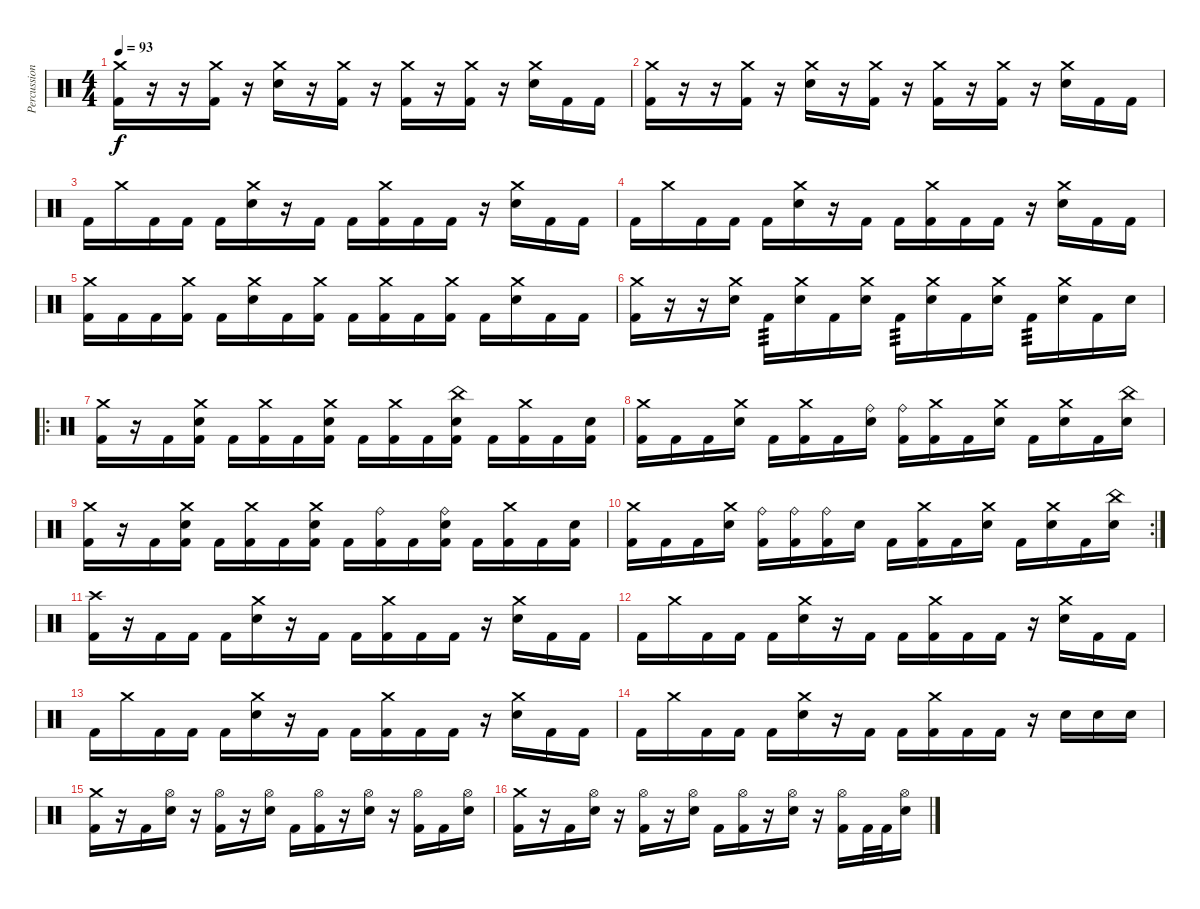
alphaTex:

\track ("Percussion" "Percussion") {instrument percussion}
\staff {score}
\articulation defaults
\ts (4 4)
\tempo 93
\clef neutral
\ks c
("Crash medium (hit)" "Kick (hit) 2").16{dy f} r.16 r.16 ("Crash medium (hit)" "Kick (hit) 2").16 r.16 ("Crash medium (hit)" "Electric Snare (hit)").16 r.16 ("Crash medium (hit)" "Kick (hit) 2").16 r.16 ("Crash medium (hit)" "Kick (hit) 2").16 r.16 ("Crash medium (hit)" "Kick (hit) 2").16 r.16 ("Crash medium (hit)" "Electric Snare (hit)").16 "Kick (hit) 2".16 "Kick (hit) 2".16 |
("Crash medium (hit)" "Kick (hit) 2").16 r.16 r.16 ("Crash medium (hit)" "Kick (hit) 2").16 r.16 ("Crash medium (hit)" "Electric Snare (hit)").16 r.16 ("Crash medium (hit)" "Kick (hit) 2").16 r.16 ("Crash medium (hit)" "Kick (hit) 2").16 r.16 ("Crash medium (hit)" "Kick (hit) 2").16 r.16 ("Crash medium (hit)" "Electric Snare (hit)").16 "Kick (hit) 2".16 "Kick (hit) 2".16 |
"Kick (hit) 2".16 "Crash medium (hit)".16 "Kick (hit) 2".16 "Kick (hit) 2".16 "Kick (hit) 2".16 ("Crash medium (hit)" "Electric Snare (hit)").16 r.16 "Kick (hit) 2".16 "Kick (hit) 2".16 ("Crash medium (hit)" "Kick (hit) 2").16 "Kick (hit) 2".16 "Kick (hit) 2".16 r.16 ("Crash medium (hit)" "Electric Snare (hit)").16 "Kick (hit) 2".16 "Kick (hit) 2".16 |
"Kick (hit) 2".16 "Crash medium (hit)".16 "Kick (hit) 2".16 "Kick (hit) 2".16 "Kick (hit) 2".16 ("Crash medium (hit)" "Electric Snare (hit)").16 r.16 "Kick (hit) 2".16 "Kick (hit) 2".16 ("Crash medium (hit)" "Kick (hit) 2").16 "Kick (hit) 2".16 "Kick (hit) 2".16 r.16 ("Crash medium (hit)" "Electric Snare (hit)").16 "Kick (hit) 2".16 "Kick (hit) 2".16 |
("Crash medium (hit)" "Kick (hit) 2").16 "Kick (hit) 2".16 "Kick (hit) 2".16 ("Crash medium (hit)" "Kick (hit) 2").16 "Kick (hit) 2".16 ("Crash medium (hit)" "Electric Snare (hit)").16 "Kick (hit) 2".16 ("Crash medium (hit)" "Kick (hit) 2").16 "Kick (hit) 2".16 ("Crash medium (hit)" "Kick (hit) 2").16 "Kick (hit) 2".16 ("Crash medium (hit)" "Kick (hit) 2").16 "Kick (hit) 2".16 ("Crash medium (hit)" "Electric Snare (hit)").16 "Kick (hit) 2".16 "Kick (hit) 2".16 |
("Crash medium (hit)" "Kick (hit) 2").16 r.16 r.16 ("Crash medium (hit)" "Electric Snare (hit)").16 "Kick (hit) 2".16{tp 3} ("Crash medium (hit)" "Electric Snare (hit)").16 "Kick (hit) 2".16 ("Crash medium (hit)" "Electric Snare (hit)").16 "Kick (hit) 2".16{tp 3} ("Crash medium (hit)" "Electric Snare (hit)").16 "Kick (hit) 2".16 ("Crash medium (hit)" "Electric Snare (hit)").16 "Kick (hit) 2".16{tp 3} ("Crash medium (hit)" "Electric Snare (hit)").16 "Kick (hit) 2".16 "Electric Snare (hit)".16 |
\ro
("Crash medium (hit)" "Kick (hit) 2").16 r.16 "Kick (hit) 2".16 ("Crash medium (hit)" "Electric Snare (hit)" "Kick (hit) 2").16 "Kick (hit) 2".16 ("Crash medium (hit)" "Kick (hit) 2").16 "Kick (hit) 2".16 ("Crash medium (hit)" "Electric Snare (hit)" "Kick (hit) 2").16 "Kick (hit) 2".16 ("Crash medium (hit)" "Kick (hit) 2").16 "Kick (hit) 2".16 ("China (hit)" "Electric Snare (hit)" "Kick (hit) 2").16 "Kick (hit) 2".16 ("Crash medium (hit)" "Kick (hit) 2").16 "Kick (hit) 2".16 ("Electric Snare (hit)" "Kick (hit) 2").16 |
("Crash medium (hit)" "Kick (hit) 2").16 "Kick (hit) 2".16 "Kick (hit) 2".16 ("Crash medium (hit)" "Electric Snare (hit)").16 "Kick (hit) 2".16 ("Crash medium (hit)" "Kick (hit) 2").16 "Kick (hit) 2".16 ("Ride (bell)" "Electric Snare (hit)").16 ("Ride (bell)" "Kick (hit) 2").16 ("Crash medium (hit)" "Kick (hit) 2").16 "Kick (hit) 2".16 ("Crash medium (hit)" "Electric Snare (hit)").16 "Kick (hit) 2".16 ("Crash medium (hit)" "Electric Snare (hit)").16 "Kick (hit) 2".16 ("China (hit)" "Electric Snare (hit)").16 |
("Crash medium (hit)" "Kick (hit) 2").16 r.16 "Kick (hit) 2".16 ("Crash medium (hit)" "Electric Snare (hit)" "Kick (hit) 2").16 "Kick (hit) 2".16 ("Crash medium (hit)" "Kick (hit) 2").16 "Kick (hit) 2".16 ("Crash medium (hit)" "Electric Snare (hit)" "Kick (hit) 2").16 "Kick (hit) 2".16 ("Ride (bell)" "Kick (hit) 2").16 "Kick (hit) 2".16 ("Ride (bell)" "Electric Snare (hit)" "Kick (hit) 2").16 "Kick (hit) 2".16 ("Crash medium (hit)" "Kick (hit) 2").16 "Kick (hit) 2".16 ("Electric Snare (hit)" "Kick (hit) 2").16 |
\rc 2
("Crash medium (hit)" "Kick (hit) 2").16 "Kick (hit) 2".16 "Kick (hit) 2".16 ("Crash medium (hit)" "Electric Snare (hit)").16 ("Ride (bell)" "Kick (hit) 2").16 ("Ride (bell)" "Kick (hit) 2").16 ("Ride (bell)" "Kick (hit) 2").16 "Electric Snare (hit)".16 "Kick (hit) 2".16 ("Crash medium (hit)" "Kick (hit) 2").16 "Kick (hit) 2".16 ("Crash medium (hit)" "Electric Snare (hit)").16 "Kick (hit) 2".16 ("Crash medium (hit)" "Electric Snare (hit)").16 "Kick (hit) 2".16 ("China (hit)" "Electric Snare (hit)").16 |
("Crash high (hit)" "Kick (hit) 2").16 r.16 "Kick (hit) 2".16 "Kick (hit) 2".16 "Kick (hit) 2".16 ("Crash medium (hit)" "Electric Snare (hit)").16 r.16 "Kick (hit) 2".16 "Kick (hit) 2".16 ("Crash medium (hit)" "Kick (hit) 2").16 "Kick (hit) 2".16 "Kick (hit) 2".16 r.16 ("Crash medium (hit)" "Electric Snare (hit)").16 "Kick (hit) 2".16 "Kick (hit) 2".16 |
"Kick (hit) 2".16 "Crash medium (hit)".16 "Kick (hit) 2".16 "Kick (hit) 2".16 "Kick (hit) 2".16 ("Crash medium (hit)" "Electric Snare (hit)").16 r.16 "Kick (hit) 2".16 "Kick (hit) 2".16 ("Crash medium (hit)" "Kick (hit) 2").16 "Kick (hit) 2".16 "Kick (hit) 2".16 r.16 ("Crash medium (hit)" "Electric Snare (hit)").16 "Kick (hit) 2".16 "Kick (hit) 2".16 |
"Kick (hit) 2".16 "Crash medium (hit)".16 "Kick (hit) 2".16 "Kick (hit) 2".16 "Kick (hit) 2".16 ("Crash medium (hit)" "Electric Snare (hit)").16 r.16 "Kick (hit) 2".16 "Kick (hit) 2".16 ("Crash medium (hit)" "Kick (hit) 2").16 "Kick (hit) 2".16 "Kick (hit) 2".16 r.16 ("Crash medium (hit)" "Electric Snare (hit)").16 "Kick (hit) 2".16 "Kick (hit) 2".16 |
"Kick (hit) 2".16 "Crash medium (hit)".16 "Kick (hit) 2".16 "Kick (hit) 2".16 "Kick (hit) 2".16 ("Crash medium (hit)" "Electric Snare (hit)").16 r.16 "Kick (hit) 2".16 "Kick (hit) 2".16 ("Crash medium (hit)" "Kick (hit) 2").16 "Kick (hit) 2".16 "Kick (hit) 2".16 r.16 "Electric Snare (hit)".16 "Electric Snare (hit)".16 "Electric Snare (hit)".16 |
("Crash medium (hit)" "Kick (hit) 2").16 r.16 "Kick (hit) 2".16 ("Hi-Hat (open)" "Electric Snare (hit)").16 r.16 ("Hi-Hat (open)" "Kick (hit) 2").16 r.16 ("Hi-Hat (open)" "Electric Snare (hit)").16 "Kick (hit) 2".16 ("Hi-Hat (open)" "Kick (hit) 2").16 r.16 ("Hi-Hat (open)" "Electric Snare (hit)").16 r.16 ("Hi-Hat (open)" "Kick (hit) 2").16 "Kick (hit) 2".16 ("Hi-Hat (open)" "Electric Snare (hit)").16 |
("Crash medium (hit)" "Kick (hit) 2").16 r.16 "Kick (hit) 2".16 ("Hi-Hat (open)" "Electric Snare (hit)").16 r.16 ("Hi-Hat (open)" "Kick (hit) 2").16 r.16 ("Hi-Hat (open)" "Electric Snare (hit)").16 "Kick (hit) 2".16 ("Hi-Hat (open)" "Kick (hit) 2").16 r.16 ("Hi-Hat (open)" "Electric Snare (hit)").16 r.16 ("Hi-Hat (open)" "Kick (hit) 2").16 "Kick (hit) 2".32 "Kick (hit) 2".32 ("Hi-Hat (open)" "Electric Snare (hit)").16
